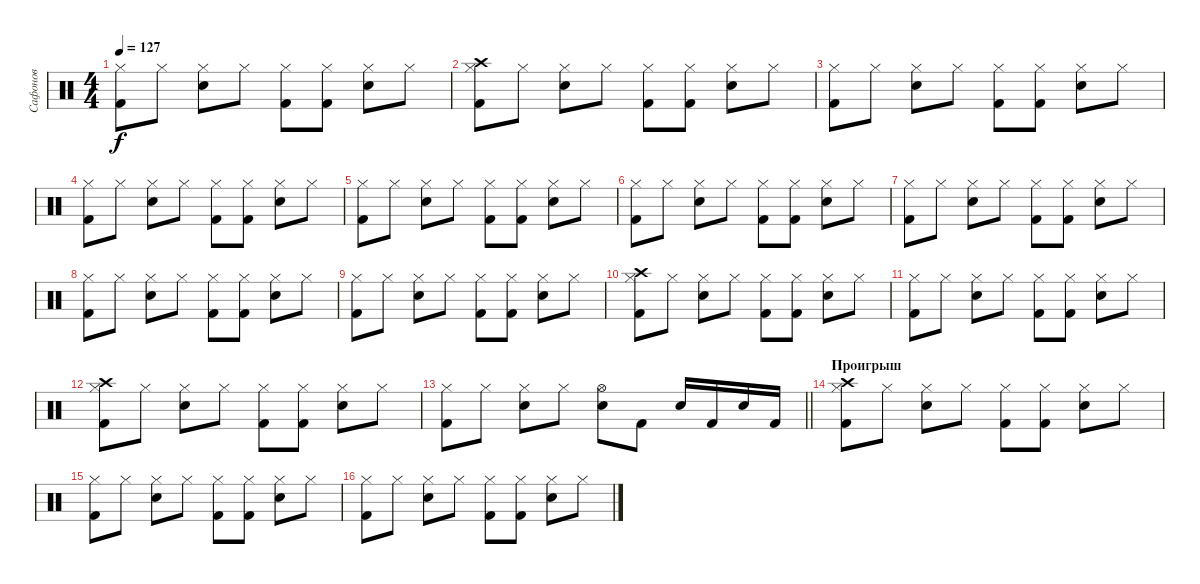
\track ("Сафонов" "Сафонов") {instrument percussion}
\staff {score}
\articulation defaults
\ts (4 4)
\tempo 127
\clef neutral
\ks c
("Hi-Hat (closed)" "Kick (hit) 2").8{dy f} "Hi-Hat (closed)".8 ("Hi-Hat (closed)" "Electric Snare (hit)").8 "Hi-Hat (closed)".8 ("Hi-Hat (closed)" "Kick (hit) 2").8 ("Hi-Hat (closed)" "Kick (hit) 2").8 ("Hi-Hat (closed)" "Electric Snare (hit)").8 "Hi-Hat (closed)".8 |
("Crash high (hit)" "Hi-Hat (closed)" "Kick (hit) 2").8 "Hi-Hat (closed)".8 ("Hi-Hat (closed)" "Electric Snare (hit)").8 "Hi-Hat (closed)".8 ("Hi-Hat (closed)" "Kick (hit) 2").8 ("Hi-Hat (closed)" "Kick (hit) 2").8 ("Hi-Hat (closed)" "Electric Snare (hit)").8 "Hi-Hat (closed)".8 |
("Hi-Hat (closed)" "Kick (hit) 2").8 "Hi-Hat (closed)".8 ("Hi-Hat (closed)" "Electric Snare (hit)").8 "Hi-Hat (closed)".8 ("Hi-Hat (closed)" "Kick (hit) 2").8 ("Hi-Hat (closed)" "Kick (hit) 2").8 ("Hi-Hat (closed)" "Electric Snare (hit)").8 "Hi-Hat (closed)".8 |
("Hi-Hat (closed)" "Kick (hit) 2").8 "Hi-Hat (closed)".8 ("Hi-Hat (closed)" "Electric Snare (hit)").8 "Hi-Hat (closed)".8 ("Hi-Hat (closed)" "Kick (hit) 2").8 ("Hi-Hat (closed)" "Kick (hit) 2").8 ("Hi-Hat (closed)" "Electric Snare (hit)").8 "Hi-Hat (closed)".8 |
("Hi-Hat (closed)" "Kick (hit) 2").8 "Hi-Hat (closed)".8 ("Hi-Hat (closed)" "Electric Snare (hit)").8 "Hi-Hat (closed)".8 ("Hi-Hat (closed)" "Kick (hit) 2").8 ("Hi-Hat (closed)" "Kick (hit) 2").8 ("Hi-Hat (closed)" "Electric Snare (hit)").8 "Hi-Hat (closed)".8 |
("Hi-Hat (closed)" "Kick (hit) 2").8 "Hi-Hat (closed)".8 ("Hi-Hat (closed)" "Electric Snare (hit)").8 "Hi-Hat (closed)".8 ("Hi-Hat (closed)" "Kick (hit) 2").8 ("Hi-Hat (closed)" "Kick (hit) 2").8 ("Hi-Hat (closed)" "Electric Snare (hit)").8 "Hi-Hat (closed)".8 |
("Hi-Hat (closed)" "Kick (hit) 2").8 "Hi-Hat (closed)".8 ("Hi-Hat (closed)" "Electric Snare (hit)").8 "Hi-Hat (closed)".8 ("Hi-Hat (closed)" "Kick (hit) 2").8 ("Hi-Hat (closed)" "Kick (hit) 2").8 ("Hi-Hat (closed)" "Electric Snare (hit)").8 "Hi-Hat (closed)".8 |
("Hi-Hat (closed)" "Kick (hit) 2").8 "Hi-Hat (closed)".8 ("Hi-Hat (closed)" "Electric Snare (hit)").8 "Hi-Hat (closed)".8 ("Hi-Hat (closed)" "Kick (hit) 2").8 ("Hi-Hat (closed)" "Kick (hit) 2").8 ("Hi-Hat (closed)" "Electric Snare (hit)").8 "Hi-Hat (closed)".8 |
("Hi-Hat (closed)" "Kick (hit) 2").8 "Hi-Hat (closed)".8 ("Hi-Hat (closed)" "Electric Snare (hit)").8 "Hi-Hat (closed)".8 ("Hi-Hat (closed)" "Kick (hit) 2").8 ("Hi-Hat (closed)" "Kick (hit) 2").8 ("Hi-Hat (closed)" "Electric Snare (hit)").8 "Hi-Hat (closed)".8 |
("Crash high (hit)" "Hi-Hat (closed)" "Kick (hit) 2").8 "Hi-Hat (closed)".8 ("Hi-Hat (closed)" "Electric Snare (hit)").8 "Hi-Hat (closed)".8 ("Hi-Hat (closed)" "Kick (hit) 2").8 ("Hi-Hat (closed)" "Kick (hit) 2").8 ("Hi-Hat (closed)" "Electric Snare (hit)").8 "Hi-Hat (closed)".8 |
("Hi-Hat (closed)" "Kick (hit) 2").8 "Hi-Hat (closed)".8 ("Hi-Hat (closed)" "Electric Snare (hit)").8 "Hi-Hat (closed)".8 ("Hi-Hat (closed)" "Kick (hit) 2").8 ("Hi-Hat (closed)" "Kick (hit) 2").8 ("Hi-Hat (closed)" "Electric Snare (hit)").8 "Hi-Hat (closed)".8 |
("Crash high (hit)" "Hi-Hat (closed)" "Kick (hit) 2").8 "Hi-Hat (closed)".8 ("Hi-Hat (closed)" "Electric Snare (hit)").8 "Hi-Hat (closed)".8 ("Hi-Hat (closed)" "Kick (hit) 2").8 ("Hi-Hat (closed)" "Kick (hit) 2").8 ("Hi-Hat (closed)" "Electric Snare (hit)").8 "Hi-Hat (closed)".8 |
\barLineRight lightlight
("Hi-Hat (closed)" "Kick (hit) 2").8 "Hi-Hat (closed)".8 ("Hi-Hat (closed)" "Electric Snare (hit)").8 "Hi-Hat (closed)".8 ("Hi-Hat (open)" "Electric Snare (hit)").8 "Kick (hit) 2".8 "Electric Snare (hit)".16 "Kick (hit) 2".16 "Electric Snare (hit)".16 "Kick (hit) 2".16 |
\section ("" "Проигрыш")
("Crash high (hit)" "Hi-Hat (closed)" "Kick (hit) 2").8 "Hi-Hat (closed)".8 ("Hi-Hat (closed)" "Electric Snare (hit)").8 "Hi-Hat (closed)".8 ("Hi-Hat (closed)" "Kick (hit) 2").8 ("Hi-Hat (closed)" "Kick (hit) 2").8 ("Hi-Hat (closed)" "Electric Snare (hit)").8 "Hi-Hat (closed)".8 |
("Hi-Hat (closed)" "Kick (hit) 2").8 "Hi-Hat (closed)".8 ("Hi-Hat (closed)" "Electric Snare (hit)").8 "Hi-Hat (closed)".8 ("Hi-Hat (closed)" "Kick (hit) 2").8 ("Hi-Hat (closed)" "Kick (hit) 2").8 ("Hi-Hat (closed)" "Electric Snare (hit)").8 "Hi-Hat (closed)".8 |
("Hi-Hat (closed)" "Kick (hit) 2").8 "Hi-Hat (closed)".8 ("Hi-Hat (closed)" "Electric Snare (hit)").8 "Hi-Hat (closed)".8 ("Hi-Hat (closed)" "Kick (hit) 2").8 ("Hi-Hat (closed)" "Kick (hit) 2").8 ("Hi-Hat (closed)" "Electric Snare (hit)").8 "Hi-Hat (closed)".8
